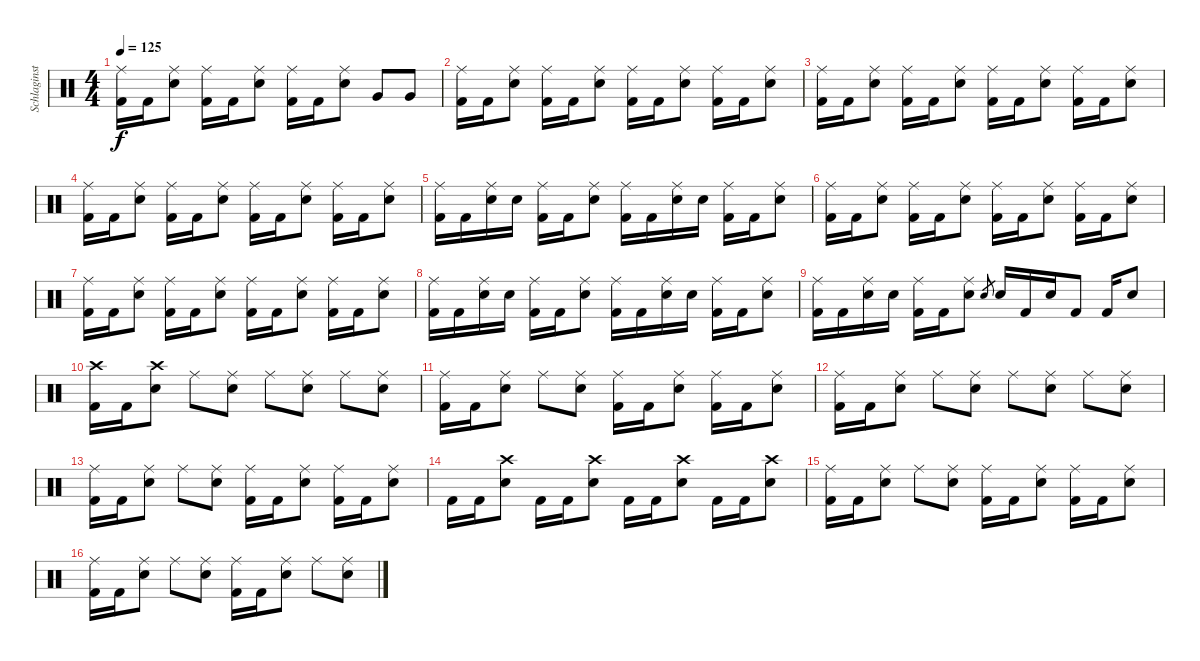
\track ("Schlaginstrumente - Auswahl" "Schlaginst") {instrument percussion}
\staff {score}
\articulation defaults
\ts (4 4)
\tempo 125
\clef neutral
\ks c
("Ride (middle)" "Kick (hit) 2").16{dy f} "Kick (hit) 2".16 ("Ride (middle)" "Snare (hit) 2").8 ("Ride (middle)" "Kick (hit) 2").16 "Kick (hit) 2".16 ("Ride (middle)" "Snare (hit) 2").8 ("Ride (middle)" "Kick (hit) 2").16 "Kick (hit) 2".16 ("Ride (middle)" "Snare (hit) 2").8 "Very Low Tom (hit)".8 "Very Low Tom (hit)".8 |
("Ride (middle)" "Kick (hit) 2").16 "Kick (hit) 2".16 ("Ride (middle)" "Snare (hit) 2").8 ("Ride (middle)" "Kick (hit) 2").16 "Kick (hit) 2".16 ("Ride (middle)" "Snare (hit) 2").8 ("Ride (middle)" "Kick (hit) 2").16 "Kick (hit) 2".16 ("Ride (middle)" "Snare (hit) 2").8 ("Ride (middle)" "Kick (hit) 2").16 "Kick (hit) 2".16 ("Ride (middle)" "Snare (hit) 2").8 |
("Ride (middle)" "Kick (hit) 2").16 "Kick (hit) 2".16 ("Ride (middle)" "Snare (hit) 2").8 ("Ride (middle)" "Kick (hit) 2").16 "Kick (hit) 2".16 ("Ride (middle)" "Snare (hit) 2").8 ("Ride (middle)" "Kick (hit) 2").16 "Kick (hit) 2".16 ("Ride (middle)" "Snare (hit) 2").8 ("Ride (middle)" "Kick (hit) 2").16 "Kick (hit) 2".16 ("Ride (middle)" "Snare (hit) 2").8 |
("Ride (middle)" "Kick (hit) 2").16 "Kick (hit) 2".16 ("Ride (middle)" "Snare (hit) 2").8 ("Ride (middle)" "Kick (hit) 2").16 "Kick (hit) 2".16 ("Ride (middle)" "Snare (hit) 2").8 ("Ride (middle)" "Kick (hit) 2").16 "Kick (hit) 2".16 ("Ride (middle)" "Snare (hit) 2").8 ("Ride (middle)" "Kick (hit) 2").16 "Kick (hit) 2".16 ("Ride (middle)" "Snare (hit) 2").8 |
("Ride (middle)" "Kick (hit) 2").16 "Kick (hit) 2".16 ("Ride (middle)" "Snare (hit) 2").16 "Snare (hit) 2".16 ("Ride (middle)" "Kick (hit) 2").16 "Kick (hit) 2".16 ("Ride (middle)" "Snare (hit) 2").8 ("Ride (middle)" "Kick (hit) 2").16 "Kick (hit) 2".16 ("Ride (middle)" "Snare (hit) 2").16 "Snare (hit) 2".16 ("Ride (middle)" "Kick (hit) 2").16 "Kick (hit) 2".16 ("Ride (middle)" "Snare (hit) 2").8 |
("Ride (middle)" "Kick (hit) 2").16 "Kick (hit) 2".16 ("Ride (middle)" "Snare (hit) 2").8 ("Ride (middle)" "Kick (hit) 2").16 "Kick (hit) 2".16 ("Ride (middle)" "Snare (hit) 2").8 ("Ride (middle)" "Kick (hit) 2").16 "Kick (hit) 2".16 ("Ride (middle)" "Snare (hit) 2").8 ("Ride (middle)" "Kick (hit) 2").16 "Kick (hit) 2".16 ("Ride (middle)" "Snare (hit) 2").8 |
("Ride (middle)" "Kick (hit) 2").16 "Kick (hit) 2".16 ("Ride (middle)" "Snare (hit) 2").8 ("Ride (middle)" "Kick (hit) 2").16 "Kick (hit) 2".16 ("Ride (middle)" "Snare (hit) 2").8 ("Ride (middle)" "Kick (hit) 2").16 "Kick (hit) 2".16 ("Ride (middle)" "Snare (hit) 2").8 ("Ride (middle)" "Kick (hit) 2").16 "Kick (hit) 2".16 ("Ride (middle)" "Snare (hit) 2").8 |
("Ride (middle)" "Kick (hit) 2").16 "Kick (hit) 2".16 ("Ride (middle)" "Snare (hit) 2").16 "Snare (hit) 2".16 ("Ride (middle)" "Kick (hit) 2").16 "Kick (hit) 2".16 ("Ride (middle)" "Snare (hit) 2").8 ("Ride (middle)" "Kick (hit) 2").16 "Kick (hit) 2".16 ("Ride (middle)" "Snare (hit) 2").16 "Snare (hit) 2".16 ("Ride (middle)" "Kick (hit) 2").16 "Kick (hit) 2".16 ("Ride (middle)" "Snare (hit) 2").8 |
("Ride (middle)" "Kick (hit) 2").16 "Kick (hit) 2".16 ("Ride (middle)" "Snare (hit) 2").16 "Snare (hit) 2".16 ("Ride (middle)" "Kick (hit) 2").16 "Kick (hit) 2".16 ("Ride (middle)" "Snare (hit) 2").8 "Snare (hit) 2".8{gr} "Snare (hit) 2".16 "Kick (hit) 2".16 "Snare (hit) 2".16 "Kick (hit) 2".8 "Kick (hit) 2".16 "Snare (hit) 2".8 |
("Crash high (hit)" "Kick (hit) 2").16 "Kick (hit) 2".16 ("Crash high (hit)" "Snare (hit) 2").8 "Ride (middle)".8 ("Ride (middle)" "Snare (hit) 2").8 "Ride (middle)".8 ("Ride (middle)" "Snare (hit) 2").8 "Ride (middle)".8 ("Ride (middle)" "Snare (hit) 2").8 |
("Ride (middle)" "Kick (hit) 2").16 "Kick (hit) 2".16 ("Ride (middle)" "Snare (hit) 2").8 "Ride (middle)".8 ("Ride (middle)" "Snare (hit) 2").8 ("Ride (middle)" "Kick (hit) 2").16 "Kick (hit) 2".16 ("Ride (middle)" "Snare (hit) 2").8 ("Ride (middle)" "Kick (hit) 2").16 "Kick (hit) 2".16 ("Ride (middle)" "Snare (hit) 2").8 |
("Ride (middle)" "Kick (hit) 2").16 "Kick (hit) 2".16 ("Ride (middle)" "Snare (hit) 2").8 "Ride (middle)".8 ("Ride (middle)" "Snare (hit) 2").8 "Ride (middle)".8 ("Ride (middle)" "Snare (hit) 2").8 "Ride (middle)".8 ("Ride (middle)" "Snare (hit) 2").8 |
("Ride (middle)" "Kick (hit) 2").16 "Kick (hit) 2".16 ("Ride (middle)" "Snare (hit) 2").8 "Ride (middle)".8 ("Ride (middle)" "Snare (hit) 2").8 ("Ride (middle)" "Kick (hit) 2").16 "Kick (hit) 2".16 ("Ride (middle)" "Snare (hit) 2").8 ("Ride (middle)" "Kick (hit) 2").16 "Kick (hit) 2".16 ("Ride (middle)" "Snare (hit) 2").8 |
"Kick (hit) 2".16 "Kick (hit) 2".16 ("Crash high (hit)" "Snare (hit) 2").8 "Kick (hit) 2".16 "Kick (hit) 2".16 ("Crash high (hit)" "Snare (hit) 2").8 "Kick (hit) 2".16 "Kick (hit) 2".16 ("Crash high (hit)" "Snare (hit) 2").8 "Kick (hit) 2".16 "Kick (hit) 2".16 ("Crash high (hit)" "Snare (hit) 2").8 |
("Ride (middle)" "Kick (hit) 2").16 "Kick (hit) 2".16 ("Ride (middle)" "Snare (hit) 2").8 "Ride (middle)".8 ("Ride (middle)" "Snare (hit) 2").8 ("Ride (middle)" "Kick (hit) 2").16 "Kick (hit) 2".16 ("Ride (middle)" "Snare (hit) 2").8 ("Ride (middle)" "Kick (hit) 2").16 "Kick (hit) 2".16 ("Ride (middle)" "Snare (hit) 2").8 |
("Ride (middle)" "Kick (hit) 2").16 "Kick (hit) 2".16 ("Ride (middle)" "Snare (hit) 2").8 "Ride (middle)".8 ("Ride (middle)" "Snare (hit) 2").8 ("Ride (middle)" "Kick (hit) 2").16 "Kick (hit) 2".16 ("Ride (middle)" "Snare (hit) 2").8 "Ride (middle)".8 ("Ride (middle)" "Snare (hit) 2").8
